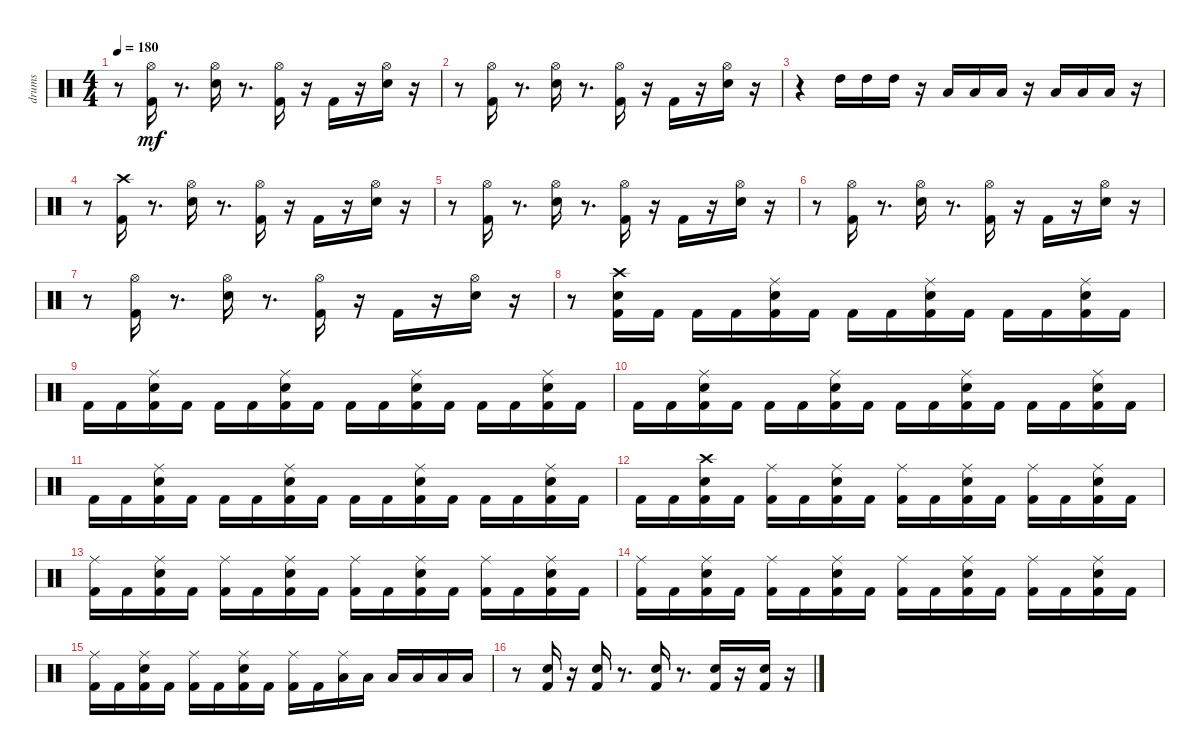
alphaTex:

\track ("drums               " "drums     ") {instrument percussion}
\staff {score}
\articulation defaults
\ts (4 4)
\tempo 180
\clef neutral
\ks c
r.8{dy mf} ("Kick (hit) 2" "Hi-Hat (open)").16 r.8{d} ("Hi-Hat (open)" "Snare (hit) 2").16 r.8{d} ("Hi-Hat (open)" "Kick (hit) 2").16 r.16 "Kick (hit) 2".16 r.16 ("Hi-Hat (open)" "Snare (hit) 2").16 r.16 |
r.8 ("Kick (hit) 2" "Hi-Hat (open)").16 r.8{d} ("Hi-Hat (open)" "Snare (hit) 2").16 r.8{d} ("Hi-Hat (open)" "Kick (hit) 2").16 r.16 "Kick (hit) 2".16 r.16 ("Hi-Hat (open)" "Snare (hit) 2").16 r.16 |
r.4 "High Tom (hit)".16 "High Tom (hit)".16 "High Tom (hit)".16 r.16 "Low Tom (hit)".16 "Low Tom (hit)".16 "Low Tom (hit)".16 r.16 "Low Floor Tom (hit)".16 "Low Floor Tom (hit)".16 "Low Floor Tom (hit)".16 r.16 |
r.8 ("Crash high (hit)" "Kick (hit) 2").16 r.8{d} ("Hi-Hat (open)" "Snare (hit) 2").16 r.8{d} ("Hi-Hat (open)" "Kick (hit) 2").16 r.16 "Kick (hit) 2".16 r.16 ("Hi-Hat (open)" "Snare (hit) 2").16 r.16 |
r.8 ("Kick (hit) 2" "Hi-Hat (open)").16 r.8{d} ("Hi-Hat (open)" "Snare (hit) 2").16 r.8{d} ("Hi-Hat (open)" "Kick (hit) 2").16 r.16 "Kick (hit) 2".16 r.16 ("Hi-Hat (open)" "Snare (hit) 2").16 r.16 |
r.8 ("Kick (hit) 2" "Hi-Hat (open)").16 r.8{d} ("Hi-Hat (open)" "Snare (hit) 2").16 r.8{d} ("Hi-Hat (open)" "Kick (hit) 2").16 r.16 "Kick (hit) 2".16 r.16 ("Hi-Hat (open)" "Snare (hit) 2").16 r.16 |
r.8 ("Kick (hit) 2" "Hi-Hat (open)").16 r.8{d} ("Hi-Hat (open)" "Snare (hit) 2").16 r.8{d} ("Hi-Hat (open)" "Kick (hit) 2").16 r.16 "Kick (hit) 2".16 r.16 ("Hi-Hat (open)" "Snare (hit) 2").16 r.16 |
r.8 ("Kick (hit) 2" "Crash high (hit)" "Snare (hit) 2").16 "Kick (hit) 2".16 "Kick (hit) 2".16 "Kick (hit) 2".16 ("Kick (hit) 2" "Ride (middle)" "Snare (hit) 2").16 "Kick (hit) 2".16 "Kick (hit) 2".16 "Kick (hit) 2".16 ("Kick (hit) 2" "Ride (middle)" "Snare (hit) 2").16 "Kick (hit) 2".16 "Kick (hit) 2".16 "Kick (hit) 2".16 ("Kick (hit) 2" "Ride (middle)" "Snare (hit) 2").16 "Kick (hit) 2".16 |
"Kick (hit) 2".16 "Kick (hit) 2".16 ("Kick (hit) 2" "Ride (middle)" "Snare (hit) 2").16 "Kick (hit) 2".16 "Kick (hit) 2".16 "Kick (hit) 2".16 ("Kick (hit) 2" "Ride (middle)" "Snare (hit) 2").16 "Kick (hit) 2".16 "Kick (hit) 2".16 "Kick (hit) 2".16 ("Kick (hit) 2" "Ride (middle)" "Snare (hit) 2").16 "Kick (hit) 2".16 "Kick (hit) 2".16 "Kick (hit) 2".16 ("Kick (hit) 2" "Snare (hit) 2" "Ride (middle)").16 "Kick (hit) 2".16 |
"Kick (hit) 2".16 "Kick (hit) 2".16 ("Kick (hit) 2" "Ride (middle)" "Snare (hit) 2").16 "Kick (hit) 2".16 "Kick (hit) 2".16 "Kick (hit) 2".16 ("Kick (hit) 2" "Ride (middle)" "Snare (hit) 2").16 "Kick (hit) 2".16 "Kick (hit) 2".16 "Kick (hit) 2".16 ("Kick (hit) 2" "Ride (middle)" "Snare (hit) 2").16 "Kick (hit) 2".16 "Kick (hit) 2".16 "Kick (hit) 2".16 ("Kick (hit) 2" "Snare (hit) 2" "Ride (middle)").16 "Kick (hit) 2".16 |
"Kick (hit) 2".16 "Kick (hit) 2".16 ("Kick (hit) 2" "Ride (middle)" "Snare (hit) 2").16 "Kick (hit) 2".16 "Kick (hit) 2".16 "Kick (hit) 2".16 ("Kick (hit) 2" "Ride (middle)" "Snare (hit) 2").16 "Kick (hit) 2".16 "Kick (hit) 2".16 "Kick (hit) 2".16 ("Ride (middle)" "Snare (hit) 2" "Kick (hit) 2").16 "Kick (hit) 2".16 "Kick (hit) 2".16 "Kick (hit) 2".16 ("Kick (hit) 2" "Snare (hit) 2" "Ride (middle)").16 "Kick (hit) 2".16 |
"Kick (hit) 2".16 "Kick (hit) 2".16 ("Kick (hit) 2" "Crash high (hit)" "Snare (hit) 2").16 "Kick (hit) 2".16 ("Kick (hit) 2" "Ride (middle)").16 "Kick (hit) 2".16 ("Kick (hit) 2" "Ride (middle)" "Snare (hit) 2").16 "Kick (hit) 2".16 ("Kick (hit) 2" "Ride (middle)").16 "Kick (hit) 2".16 ("Kick (hit) 2" "Ride (middle)" "Snare (hit) 2").16 "Kick (hit) 2".16 ("Kick (hit) 2" "Ride (middle)").16 "Kick (hit) 2".16 ("Kick (hit) 2" "Ride (middle)" "Snare (hit) 2").16 "Kick (hit) 2".16 |
("Kick (hit) 2" "Ride (middle)").16 "Kick (hit) 2".16 ("Kick (hit) 2" "Ride (middle)" "Snare (hit) 2").16 "Kick (hit) 2".16 ("Kick (hit) 2" "Ride (middle)").16 "Kick (hit) 2".16 ("Kick (hit) 2" "Ride (middle)" "Snare (hit) 2").16 "Kick (hit) 2".16 ("Kick (hit) 2" "Ride (middle)").16 "Kick (hit) 2".16 ("Kick (hit) 2" "Ride (middle)" "Snare (hit) 2").16 "Kick (hit) 2".16 ("Kick (hit) 2" "Ride (middle)").16 "Kick (hit) 2".16 ("Kick (hit) 2" "Snare (hit) 2" "Ride (middle)").16 "Kick (hit) 2".16 |
("Kick (hit) 2" "Ride (middle)").16 "Kick (hit) 2".16 ("Kick (hit) 2" "Ride (middle)" "Snare (hit) 2").16 "Kick (hit) 2".16 ("Kick (hit) 2" "Ride (middle)").16 "Kick (hit) 2".16 ("Kick (hit) 2" "Ride (middle)" "Snare (hit) 2").16 "Kick (hit) 2".16 ("Kick (hit) 2" "Ride (middle)").16 "Kick (hit) 2".16 ("Kick (hit) 2" "Ride (middle)" "Snare (hit) 2").16 "Kick (hit) 2".16 ("Kick (hit) 2" "Ride (middle)").16 "Kick (hit) 2".16 ("Kick (hit) 2" "Snare (hit) 2" "Ride (middle)").16 "Kick (hit) 2".16 |
("Kick (hit) 2" "Ride (middle)").16 "Kick (hit) 2".16 ("Kick (hit) 2" "Ride (middle)" "Snare (hit) 2").16 "Kick (hit) 2".16 ("Kick (hit) 2" "Ride (middle)").16 "Kick (hit) 2".16 ("Kick (hit) 2" "Ride (middle)" "Snare (hit) 2").16 "Kick (hit) 2".16 ("Kick (hit) 2" "Ride (middle)").16 "Kick (hit) 2".16 ("Ride (middle)" "Low Tom (hit)").16 "Low Tom (hit)".16 "Low Tom (hit)".16 "Low Tom (hit)".16 "Low Floor Tom (hit)".16 "Low Floor Tom (hit)".16 |
r.8 ("Kick (hit) 2" "Snare (hit) 2").16 r.16 ("Kick (hit) 2" "Snare (hit) 2").16 r.8{d} ("Kick (hit) 2" "Snare (hit) 2").16 r.8{d} ("Kick (hit) 2" "Snare (hit) 2").16 r.16 ("Kick (hit) 2" "Snare (hit) 2").16 r.16
